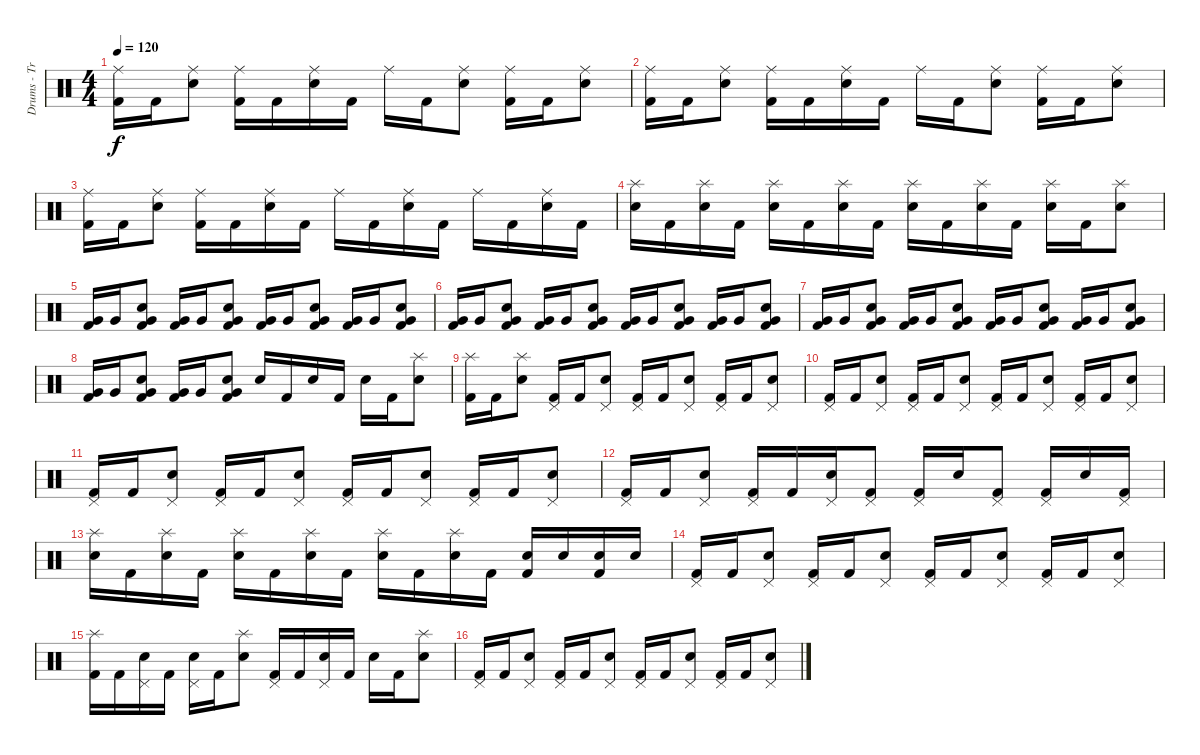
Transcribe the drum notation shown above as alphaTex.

\track ("Drums - Travis Barker" "Drums - Tr") {instrument percussion}
\staff {score}
\articulation defaults
\ts (4 4)
\tempo 120
\clef neutral
\ks c
("Ride (middle)" "Kick (hit) 2").16{dy f} "Kick (hit) 2".16 ("Ride (middle)" "Electric Snare (hit)").8 ("Ride (middle)" "Kick (hit) 2").16 "Kick (hit) 2".16 ("Ride (middle)" "Electric Snare (hit)").16 "Kick (hit) 2".16 "Ride (middle)".16 "Kick (hit) 2".16 ("Ride (middle)" "Electric Snare (hit)").8 ("Ride (middle)" "Kick (hit) 2").16 "Kick (hit) 2".16 ("Ride (middle)" "Electric Snare (hit)").8 |
("Ride (middle)" "Kick (hit) 2").16 "Kick (hit) 2".16 ("Ride (middle)" "Electric Snare (hit)").8 ("Ride (middle)" "Kick (hit) 2").16 "Kick (hit) 2".16 ("Ride (middle)" "Electric Snare (hit)").16 "Kick (hit) 2".16 "Ride (middle)".16 "Kick (hit) 2".16 ("Ride (middle)" "Electric Snare (hit)").8 ("Ride (middle)" "Kick (hit) 2").16 "Kick (hit) 2".16 ("Ride (middle)" "Electric Snare (hit)").8 |
("Ride (middle)" "Kick (hit) 2").16 "Kick (hit) 2".16 ("Ride (middle)" "Electric Snare (hit)").8 ("Ride (middle)" "Kick (hit) 2").16 "Kick (hit) 2".16 ("Ride (middle)" "Electric Snare (hit)").16 "Kick (hit) 2".16 "Ride (middle)".16 "Kick (hit) 2".16 ("Ride (middle)" "Electric Snare (hit)").16 "Kick (hit) 2".16 "Ride (middle)".16 "Kick (hit) 2".16 ("Ride (middle)" "Electric Snare (hit)").16 "Kick (hit) 2".16 |
("Splash (hit)" "Electric Snare (hit)").16 "Kick (hit) 2".16 ("Splash (hit)" "Electric Snare (hit)").16 "Kick (hit) 2".16 ("Splash (hit)" "Electric Snare (hit)").16 "Kick (hit) 2".16 ("Splash (hit)" "Electric Snare (hit)").16 "Kick (hit) 2".16 ("Splash (hit)" "Electric Snare (hit)").16 "Kick (hit) 2".16 ("Splash (hit)" "Electric Snare (hit)").16 "Kick (hit) 2".16 ("Splash (hit)" "Electric Snare (hit)").16 "Kick (hit) 2".16 ("Splash (hit)" "Electric Snare (hit)").8 |
("Very Low Tom (hit)" "Kick (hit) 2").16 "Very Low Tom (hit)".16 ("Very Low Tom (hit)" "Electric Snare (hit)" "Kick (hit) 2").8 ("Very Low Tom (hit)" "Kick (hit) 2").16 "Very Low Tom (hit)".16 ("Very Low Tom (hit)" "Electric Snare (hit)" "Kick (hit) 2").8 ("Very Low Tom (hit)" "Kick (hit) 2").16 "Very Low Tom (hit)".16 ("Very Low Tom (hit)" "Electric Snare (hit)" "Kick (hit) 2").8 ("Very Low Tom (hit)" "Kick (hit) 2").16 "Very Low Tom (hit)".16 ("Very Low Tom (hit)" "Electric Snare (hit)" "Kick (hit) 2").8 |
("Very Low Tom (hit)" "Kick (hit) 2").16 "Very Low Tom (hit)".16 ("Very Low Tom (hit)" "Electric Snare (hit)" "Kick (hit) 2").8 ("Very Low Tom (hit)" "Kick (hit) 2").16 "Very Low Tom (hit)".16 ("Very Low Tom (hit)" "Electric Snare (hit)" "Kick (hit) 2").8 ("Very Low Tom (hit)" "Kick (hit) 2").16 "Very Low Tom (hit)".16 ("Very Low Tom (hit)" "Electric Snare (hit)" "Kick (hit) 2").8 ("Very Low Tom (hit)" "Kick (hit) 2").16 "Very Low Tom (hit)".16 ("Very Low Tom (hit)" "Electric Snare (hit)" "Kick (hit) 2").8 |
("Very Low Tom (hit)" "Kick (hit) 2").16 "Very Low Tom (hit)".16 ("Very Low Tom (hit)" "Electric Snare (hit)" "Kick (hit) 2").8 ("Very Low Tom (hit)" "Kick (hit) 2").16 "Very Low Tom (hit)".16 ("Very Low Tom (hit)" "Electric Snare (hit)" "Kick (hit) 2").8 ("Very Low Tom (hit)" "Kick (hit) 2").16 "Very Low Tom (hit)".16 ("Very Low Tom (hit)" "Electric Snare (hit)" "Kick (hit) 2").8 ("Very Low Tom (hit)" "Kick (hit) 2").16 "Very Low Tom (hit)".16 ("Very Low Tom (hit)" "Electric Snare (hit)" "Kick (hit) 2").8 |
("Very Low Tom (hit)" "Kick (hit) 2").16 "Very Low Tom (hit)".16 ("Very Low Tom (hit)" "Electric Snare (hit)" "Kick (hit) 2").8 ("Very Low Tom (hit)" "Kick (hit) 2").16 "Very Low Tom (hit)".16 ("Very Low Tom (hit)" "Electric Snare (hit)" "Kick (hit) 2").8 "Electric Snare (hit)".16 "Kick (hit) 2".16 "Electric Snare (hit)".16 "Kick (hit) 2".16 "Electric Snare (hit)".16 "Kick (hit) 2".16 ("Splash (hit)" "Electric Snare (hit)").8 |
("Splash (hit)" "Kick (hit) 2").16 "Kick (hit) 2".16 ("Splash (hit)" "Electric Snare (hit)").8 ("Pedal Hi-Hat (hit)" "Kick (hit) 2").16 "Kick (hit) 2".16 ("Pedal Hi-Hat (hit)" "Electric Snare (hit)").8 ("Pedal Hi-Hat (hit)" "Kick (hit) 2").16 "Kick (hit) 2".16 ("Pedal Hi-Hat (hit)" "Electric Snare (hit)").8 ("Pedal Hi-Hat (hit)" "Kick (hit) 2").16 "Kick (hit) 2".16 ("Pedal Hi-Hat (hit)" "Electric Snare (hit)").8 |
("Pedal Hi-Hat (hit)" "Kick (hit) 2").16 "Kick (hit) 2".16 ("Pedal Hi-Hat (hit)" "Electric Snare (hit)").8 ("Pedal Hi-Hat (hit)" "Kick (hit) 2").16 "Kick (hit) 2".16 ("Pedal Hi-Hat (hit)" "Electric Snare (hit)").8 ("Pedal Hi-Hat (hit)" "Kick (hit) 2").16 "Kick (hit) 2".16 ("Pedal Hi-Hat (hit)" "Electric Snare (hit)").8 ("Pedal Hi-Hat (hit)" "Kick (hit) 2").16 "Kick (hit) 2".16 ("Pedal Hi-Hat (hit)" "Electric Snare (hit)").8 |
("Pedal Hi-Hat (hit)" "Kick (hit) 2").16 "Kick (hit) 2".16 ("Pedal Hi-Hat (hit)" "Electric Snare (hit)").8 ("Pedal Hi-Hat (hit)" "Kick (hit) 2").16 "Kick (hit) 2".16 ("Pedal Hi-Hat (hit)" "Electric Snare (hit)").8 ("Pedal Hi-Hat (hit)" "Kick (hit) 2").16 "Kick (hit) 2".16 ("Pedal Hi-Hat (hit)" "Electric Snare (hit)").8 ("Pedal Hi-Hat (hit)" "Kick (hit) 2").16 "Kick (hit) 2".16 ("Pedal Hi-Hat (hit)" "Electric Snare (hit)").8 |
("Pedal Hi-Hat (hit)" "Kick (hit) 2").16 "Kick (hit) 2".16 ("Pedal Hi-Hat (hit)" "Electric Snare (hit)").8 ("Pedal Hi-Hat (hit)" "Kick (hit) 2").16 "Kick (hit) 2".16 ("Pedal Hi-Hat (hit)" "Electric Snare (hit)").16 ("Pedal Hi-Hat (hit)" "Kick (hit) 2").8 ("Pedal Hi-Hat (hit)" "Kick (hit) 2").16 "Electric Snare (hit)".16 ("Pedal Hi-Hat (hit)" "Kick (hit) 2").8 ("Pedal Hi-Hat (hit)" "Kick (hit) 2").16 "Electric Snare (hit)".16 ("Pedal Hi-Hat (hit)" "Kick (hit) 2").16 |
("Splash (hit)" "Electric Snare (hit)").16 "Kick (hit) 2".16 ("Splash (hit)" "Electric Snare (hit)").16 "Kick (hit) 2".16 ("Splash (hit)" "Electric Snare (hit)").16 "Kick (hit) 2".16 ("Splash (hit)" "Electric Snare (hit)").16 "Kick (hit) 2".16 ("Splash (hit)" "Electric Snare (hit)").16 "Kick (hit) 2".16 ("Splash (hit)" "Electric Snare (hit)").16 "Kick (hit) 2".16 ("Electric Snare (hit)" "Kick (hit) 2").16 "Electric Snare (hit)".16 ("Electric Snare (hit)" "Kick (hit) 2").16 "Electric Snare (hit)".16 |
("Pedal Hi-Hat (hit)" "Kick (hit) 2").16 "Kick (hit) 2".16 ("Pedal Hi-Hat (hit)" "Electric Snare (hit)").8 ("Pedal Hi-Hat (hit)" "Kick (hit) 2").16 "Kick (hit) 2".16 ("Pedal Hi-Hat (hit)" "Electric Snare (hit)").8 ("Pedal Hi-Hat (hit)" "Kick (hit) 2").16 "Kick (hit) 2".16 ("Pedal Hi-Hat (hit)" "Electric Snare (hit)").8 ("Pedal Hi-Hat (hit)" "Kick (hit) 2").16 "Kick (hit) 2".16 ("Pedal Hi-Hat (hit)" "Electric Snare (hit)").8 |
("Splash (hit)" "Kick (hit) 2").16 "Kick (hit) 2".16 ("Pedal Hi-Hat (hit)" "Electric Snare (hit)").16 "Kick (hit) 2".16 ("Pedal Hi-Hat (hit)" "Electric Snare (hit)").16 "Kick (hit) 2".16 ("Splash (hit)" "Electric Snare (hit)").8 ("Pedal Hi-Hat (hit)" "Kick (hit) 2").16 "Kick (hit) 2".16 ("Pedal Hi-Hat (hit)" "Electric Snare (hit)").16 "Kick (hit) 2".16 "Electric Snare (hit)".16 "Kick (hit) 2".16 ("Splash (hit)" "Electric Snare (hit)").8 |
("Pedal Hi-Hat (hit)" "Kick (hit) 2").16 "Kick (hit) 2".16 ("Pedal Hi-Hat (hit)" "Electric Snare (hit)").8 ("Pedal Hi-Hat (hit)" "Kick (hit) 2").16 "Kick (hit) 2".16 ("Pedal Hi-Hat (hit)" "Electric Snare (hit)").8 ("Pedal Hi-Hat (hit)" "Kick (hit) 2").16 "Kick (hit) 2".16 ("Pedal Hi-Hat (hit)" "Electric Snare (hit)").8 ("Pedal Hi-Hat (hit)" "Kick (hit) 2").16 "Kick (hit) 2".16 ("Pedal Hi-Hat (hit)" "Electric Snare (hit)").8
